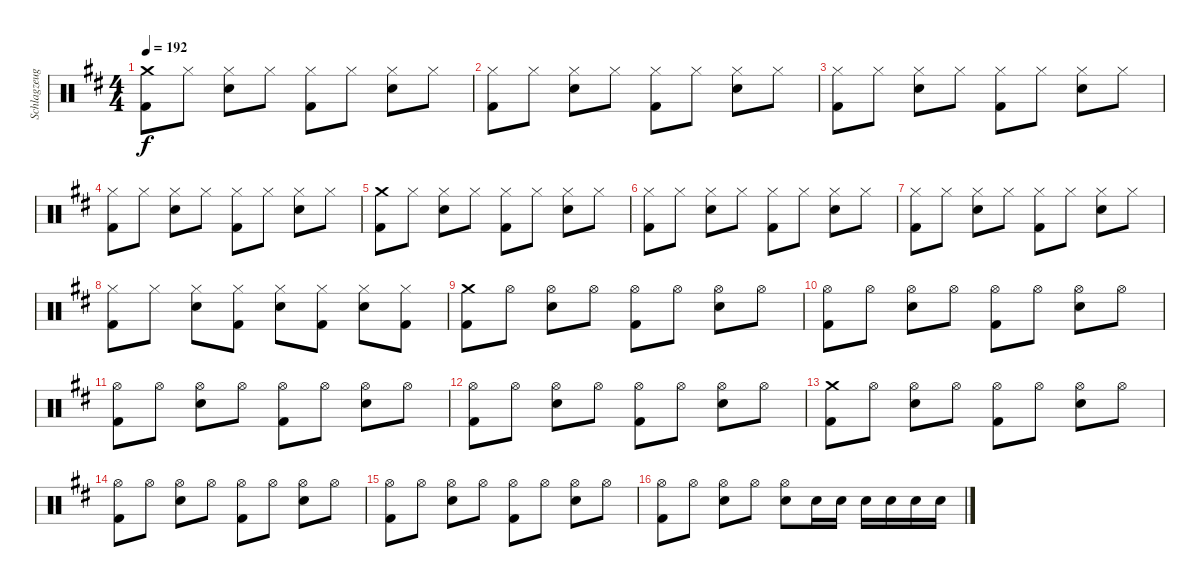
\track ("Schlagzeug - Vom" "Schlagzeug") {instrument percussion}
\staff {score}
\articulation defaults
\ts (4 4)
\tempo 192
\clef neutral
\ks d
("Crash medium (hit)" "Kick (hit) 2").8{dy f} "Hi-Hat (closed)".8 ("Hi-Hat (closed)" "Snare (hit) 2").8 "Hi-Hat (closed)".8 ("Hi-Hat (closed)" "Kick (hit) 2").8 "Hi-Hat (closed)".8 ("Hi-Hat (closed)" "Snare (hit) 2").8 "Hi-Hat (closed)".8 |
("Hi-Hat (closed)" "Kick (hit) 2").8 "Hi-Hat (closed)".8 ("Hi-Hat (closed)" "Snare (hit) 2").8 "Hi-Hat (closed)".8 ("Hi-Hat (closed)" "Kick (hit) 2").8 "Hi-Hat (closed)".8 ("Hi-Hat (closed)" "Snare (hit) 2").8 "Hi-Hat (closed)".8 |
("Hi-Hat (closed)" "Kick (hit) 2").8 "Hi-Hat (closed)".8 ("Hi-Hat (closed)" "Snare (hit) 2").8 "Hi-Hat (closed)".8 ("Hi-Hat (closed)" "Kick (hit) 2").8 "Hi-Hat (closed)".8 ("Hi-Hat (closed)" "Snare (hit) 2").8 "Hi-Hat (closed)".8 |
("Hi-Hat (closed)" "Kick (hit) 2").8 "Hi-Hat (closed)".8 ("Hi-Hat (closed)" "Snare (hit) 2").8 "Hi-Hat (closed)".8 ("Hi-Hat (closed)" "Kick (hit) 2").8 "Hi-Hat (closed)".8 ("Hi-Hat (closed)" "Snare (hit) 2").8 "Hi-Hat (closed)".8 |
("Crash medium (hit)" "Kick (hit) 2").8 "Hi-Hat (closed)".8 ("Hi-Hat (closed)" "Snare (hit) 2").8 "Hi-Hat (closed)".8 ("Hi-Hat (closed)" "Kick (hit) 2").8 "Hi-Hat (closed)".8 ("Hi-Hat (closed)" "Snare (hit) 2").8 "Hi-Hat (closed)".8 |
("Hi-Hat (closed)" "Kick (hit) 2").8 "Hi-Hat (closed)".8 ("Hi-Hat (closed)" "Snare (hit) 2").8 "Hi-Hat (closed)".8 ("Hi-Hat (closed)" "Kick (hit) 2").8 "Hi-Hat (closed)".8 ("Hi-Hat (closed)" "Snare (hit) 2").8 "Hi-Hat (closed)".8 |
("Hi-Hat (closed)" "Kick (hit) 2").8 "Hi-Hat (closed)".8 ("Hi-Hat (closed)" "Snare (hit) 2").8 "Hi-Hat (closed)".8 ("Hi-Hat (closed)" "Kick (hit) 2").8 "Hi-Hat (closed)".8 ("Hi-Hat (closed)" "Snare (hit) 2").8 "Hi-Hat (closed)".8 |
("Hi-Hat (closed)" "Kick (hit) 2").8 "Hi-Hat (closed)".8 ("Hi-Hat (closed)" "Snare (hit) 2").8 ("Hi-Hat (closed)" "Kick (hit) 2").8 ("Hi-Hat (closed)" "Snare (hit) 2").8 ("Hi-Hat (closed)" "Kick (hit) 2").8 ("Hi-Hat (closed)" "Snare (hit) 2").8 ("Hi-Hat (closed)" "Kick (hit) 2").8 |
("Crash medium (hit)" "Kick (hit) 2").8 "Hi-Hat (open)".8 ("Hi-Hat (open)" "Snare (hit) 2").8 "Hi-Hat (open)".8 ("Hi-Hat (open)" "Kick (hit) 2").8 "Hi-Hat (open)".8 ("Hi-Hat (open)" "Snare (hit) 2").8 "Hi-Hat (open)".8 |
("Hi-Hat (open)" "Kick (hit) 2").8 "Hi-Hat (open)".8 ("Hi-Hat (open)" "Snare (hit) 2").8 "Hi-Hat (open)".8 ("Hi-Hat (open)" "Kick (hit) 2").8 "Hi-Hat (open)".8 ("Hi-Hat (open)" "Snare (hit) 2").8 "Hi-Hat (open)".8 |
("Hi-Hat (open)" "Kick (hit) 2").8 "Hi-Hat (open)".8 ("Hi-Hat (open)" "Snare (hit) 2").8 "Hi-Hat (open)".8 ("Hi-Hat (open)" "Kick (hit) 2").8 "Hi-Hat (open)".8 ("Hi-Hat (open)" "Snare (hit) 2").8 "Hi-Hat (open)".8 |
("Hi-Hat (open)" "Kick (hit) 2").8 "Hi-Hat (open)".8 ("Hi-Hat (open)" "Snare (hit) 2").8 "Hi-Hat (open)".8 ("Hi-Hat (open)" "Kick (hit) 2").8 "Hi-Hat (open)".8 ("Hi-Hat (open)" "Snare (hit) 2").8 "Hi-Hat (open)".8 |
("Crash medium (hit)" "Kick (hit) 2").8 "Hi-Hat (open)".8 ("Hi-Hat (open)" "Snare (hit) 2").8 "Hi-Hat (open)".8 ("Hi-Hat (open)" "Kick (hit) 2").8 "Hi-Hat (open)".8 ("Hi-Hat (open)" "Snare (hit) 2").8 "Hi-Hat (open)".8 |
("Hi-Hat (open)" "Kick (hit) 2").8 "Hi-Hat (open)".8 ("Hi-Hat (open)" "Snare (hit) 2").8 "Hi-Hat (open)".8 ("Hi-Hat (open)" "Kick (hit) 2").8 "Hi-Hat (open)".8 ("Hi-Hat (open)" "Snare (hit) 2").8 "Hi-Hat (open)".8 |
("Hi-Hat (open)" "Kick (hit) 2").8 "Hi-Hat (open)".8 ("Hi-Hat (open)" "Snare (hit) 2").8 "Hi-Hat (open)".8 ("Hi-Hat (open)" "Kick (hit) 2").8 "Hi-Hat (open)".8 ("Hi-Hat (open)" "Snare (hit) 2").8 "Hi-Hat (open)".8 |
("Hi-Hat (open)" "Kick (hit) 2").8 "Hi-Hat (open)".8 ("Hi-Hat (open)" "Snare (hit) 2").8 "Hi-Hat (open)".8 ("Hi-Hat (open)" "Snare (hit) 2").8 "Snare (hit) 2".16 "Snare (hit) 2".16 "Snare (hit) 2".16 "Snare (hit) 2".16 "Snare (hit) 2".16 "Snare (hit) 2".16
